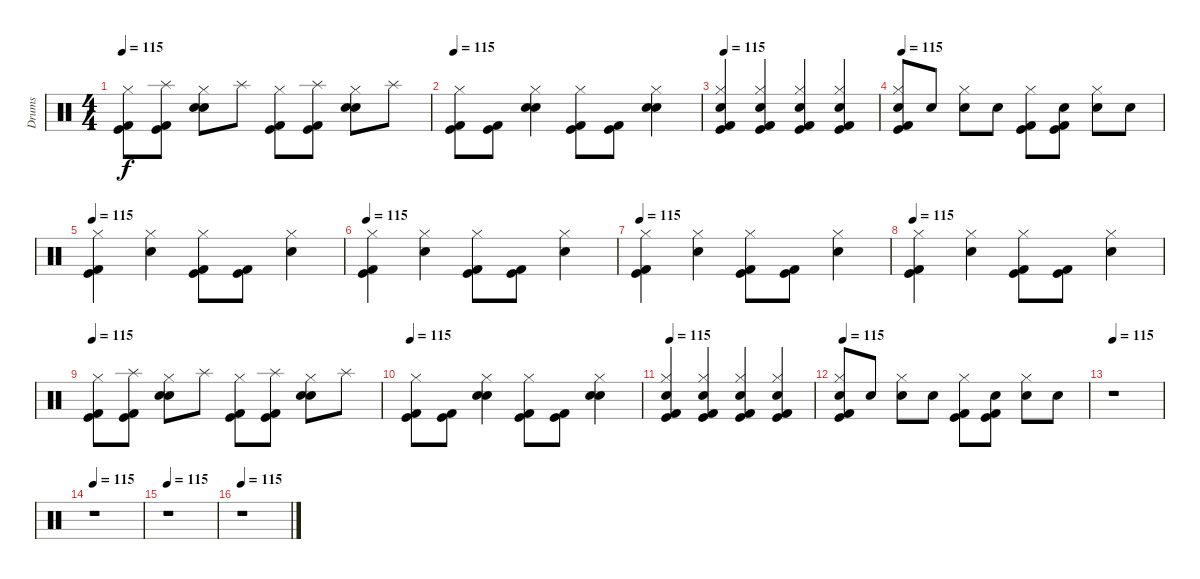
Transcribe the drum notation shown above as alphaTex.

\track ("Drums" "Drums") {instrument percussion}
\staff {score}
\articulation defaults
\ts (4 4)
\tempo 115
\clef neutral
\ks c
("Kick (hit) 2" "Kick (hit)" "Hi-Hat (closed)").8{dy f} ("Kick (hit) 2" "Kick (hit)" "Splash (hit)").8 ("Snare (hit) 2" "Hi-Hat (closed)" "Electric Snare (hit)").8 "Splash (hit)".8 ("Kick (hit) 2" "Kick (hit)" "Hi-Hat (closed)").8 ("Kick (hit) 2" "Kick (hit)" "Splash (hit)").8 ("Snare (hit) 2" "Electric Snare (hit)" "Hi-Hat (closed)").8 "Splash (hit)".8 |
\tempo 115
("Kick (hit) 2" "Kick (hit)" "Hi-Hat (closed)").8 ("Kick (hit) 2" "Kick (hit)").8 ("Snare (hit) 2" "Hi-Hat (closed)" "Electric Snare (hit)").4 ("Kick (hit) 2" "Kick (hit)" "Hi-Hat (closed)").8 ("Kick (hit) 2" "Kick (hit)").8 ("Snare (hit) 2" "Electric Snare (hit)" "Hi-Hat (closed)").4 |
\tempo 115
("Electric Snare (hit)" "Kick (hit) 2" "Kick (hit)" "Hi-Hat (closed)").4 ("Kick (hit) 2" "Kick (hit)" "Hi-Hat (closed)" "Electric Snare (hit)").4 ("Electric Snare (hit)" "Kick (hit) 2" "Kick (hit)" "Hi-Hat (closed)").4 ("Kick (hit) 2" "Kick (hit)" "Electric Snare (hit)" "Hi-Hat (closed)").4 |
\tempo 115
("Electric Snare (hit)" "Kick (hit) 2" "Kick (hit)" "Hi-Hat (closed)").8 "Snare (hit) 2".8 ("Hi-Hat (closed)" "Electric Snare (hit)").8 "Electric Snare (hit)".8 ("Kick (hit) 2" "Kick (hit)" "Hi-Hat (closed)").8 ("Electric Snare (hit)" "Kick (hit) 2" "Kick (hit)").8 ("Electric Snare (hit)" "Hi-Hat (closed)").8 "Snare (hit) 2".8 |
\tempo 115
("Kick (hit) 2" "Kick (hit)" "Hi-Hat (closed)").4 ("Hi-Hat (closed)" "Electric Snare (hit)").4 ("Kick (hit) 2" "Kick (hit)" "Hi-Hat (closed)").8 ("Kick (hit) 2" "Kick (hit)").8 ("Electric Snare (hit)" "Hi-Hat (closed)").4 |
\tempo 115
("Kick (hit) 2" "Kick (hit)" "Hi-Hat (closed)").4 ("Hi-Hat (closed)" "Electric Snare (hit)").4 ("Kick (hit) 2" "Kick (hit)" "Hi-Hat (closed)").8 ("Kick (hit) 2" "Kick (hit)").8 ("Electric Snare (hit)" "Hi-Hat (closed)").4 |
\tempo 115
("Kick (hit) 2" "Kick (hit)" "Hi-Hat (closed)").4 ("Hi-Hat (closed)" "Electric Snare (hit)").4 ("Kick (hit) 2" "Kick (hit)" "Hi-Hat (closed)").8 ("Kick (hit) 2" "Kick (hit)").8 ("Electric Snare (hit)" "Hi-Hat (closed)").4 |
\tempo 115
("Kick (hit) 2" "Kick (hit)" "Hi-Hat (closed)").4 ("Hi-Hat (closed)" "Electric Snare (hit)").4 ("Kick (hit) 2" "Kick (hit)" "Hi-Hat (closed)").8 ("Kick (hit) 2" "Kick (hit)").8 ("Electric Snare (hit)" "Hi-Hat (closed)").4 |
\tempo 115
("Kick (hit) 2" "Kick (hit)" "Hi-Hat (closed)").8 ("Kick (hit) 2" "Kick (hit)" "Splash (hit)").8 ("Snare (hit) 2" "Hi-Hat (closed)" "Electric Snare (hit)").8 "Splash (hit)".8 ("Kick (hit) 2" "Kick (hit)" "Hi-Hat (closed)").8 ("Kick (hit) 2" "Kick (hit)" "Splash (hit)").8 ("Snare (hit) 2" "Electric Snare (hit)" "Hi-Hat (closed)").8 "Splash (hit)".8 |
\tempo 115
("Kick (hit) 2" "Kick (hit)" "Hi-Hat (closed)").8 ("Kick (hit) 2" "Kick (hit)").8 ("Snare (hit) 2" "Hi-Hat (closed)" "Electric Snare (hit)").4 ("Kick (hit) 2" "Kick (hit)" "Hi-Hat (closed)").8 ("Kick (hit) 2" "Kick (hit)").8 ("Snare (hit) 2" "Electric Snare (hit)" "Hi-Hat (closed)").4 |
\tempo 115
("Electric Snare (hit)" "Kick (hit) 2" "Kick (hit)" "Hi-Hat (closed)").4 ("Kick (hit) 2" "Kick (hit)" "Hi-Hat (closed)" "Electric Snare (hit)").4 ("Electric Snare (hit)" "Kick (hit) 2" "Kick (hit)" "Hi-Hat (closed)").4 ("Kick (hit) 2" "Kick (hit)" "Electric Snare (hit)" "Hi-Hat (closed)").4 |
\tempo 115
("Electric Snare (hit)" "Kick (hit) 2" "Kick (hit)" "Hi-Hat (closed)").8 "Snare (hit) 2".8 ("Hi-Hat (closed)" "Electric Snare (hit)").8 "Electric Snare (hit)".8 ("Kick (hit) 2" "Kick (hit)" "Hi-Hat (closed)").8 ("Electric Snare (hit)" "Kick (hit) 2" "Kick (hit)").8 ("Electric Snare (hit)" "Hi-Hat (closed)").8 "Snare (hit) 2".8 |
\tempo 115
r.1 |
\tempo 115
r.1 |
\tempo 115
r.1 |
\tempo 115
r.1
